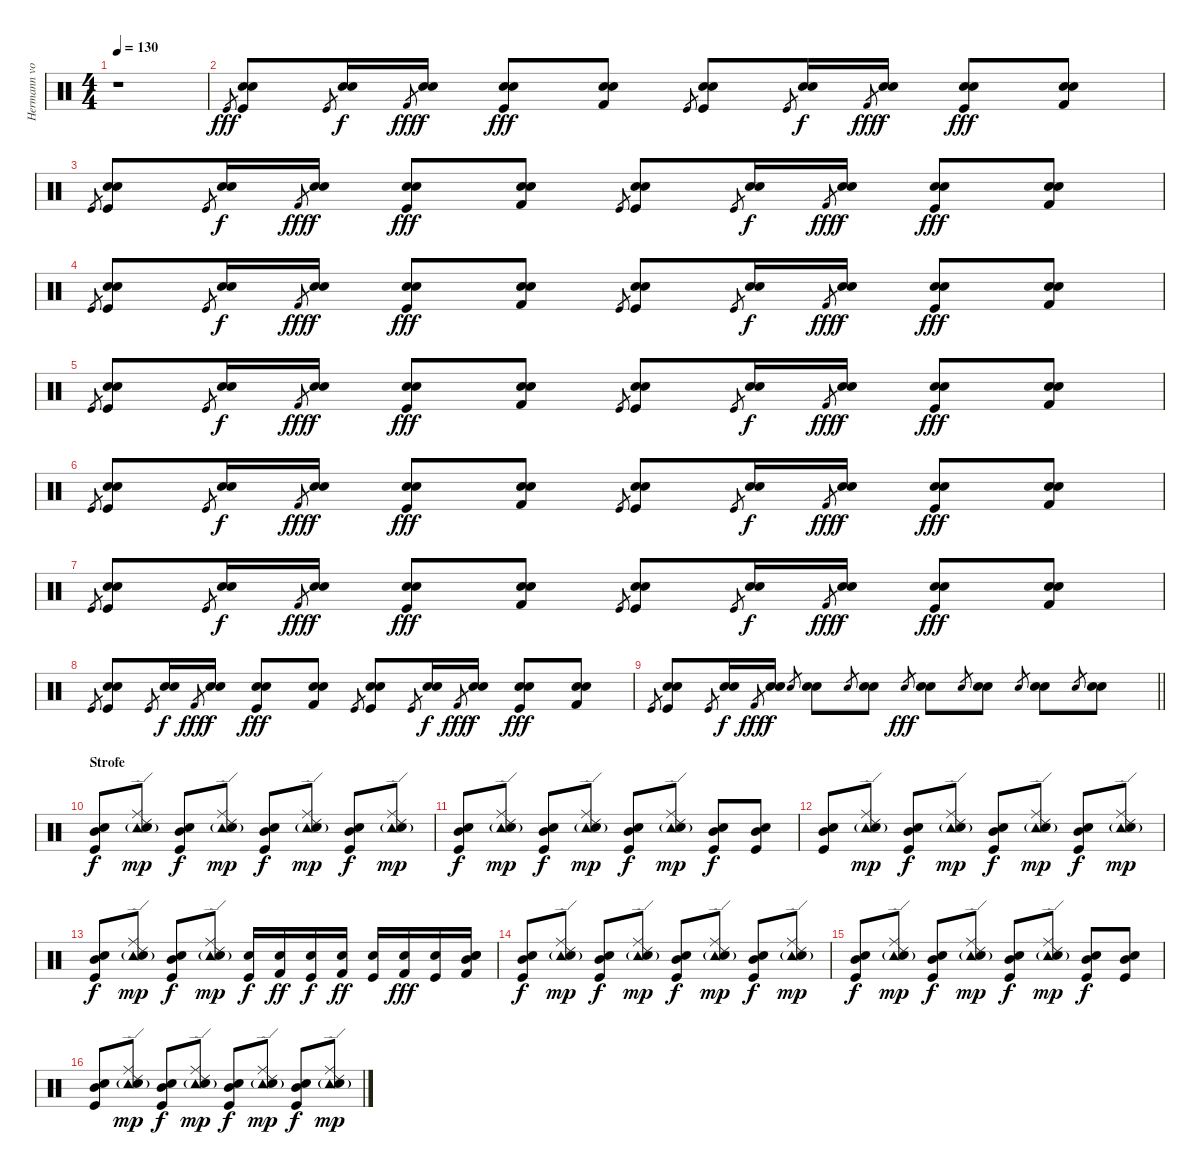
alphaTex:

\track ("Hermann von Hinten" "Hermann vo") {instrument percussion}
\staff {score}
\articulation defaults
\ts (4 4)
\tempo 130
\clef neutral
\ks c
r.1{dy fff} |
"Kick (hit)".8{gr} ("Electric Snare (hit)" "Kick (hit)" "Snare (hit) 2").8 "Kick (hit)".8{gr} ("Electric Snare (hit)" "Snare (hit) 2").16{dy f} "Kick (hit) 2".8{gr dy fff} ("Electric Snare (hit)" "Snare (hit) 2").16{dy f} ("Electric Snare (hit)" "Kick (hit)" "Snare (hit) 2").8{dy fff} ("Electric Snare (hit)" "Kick (hit) 2" "Snare (hit) 2").8 "Kick (hit)".8{gr} ("Electric Snare (hit)" "Kick (hit)" "Snare (hit) 2").8 "Kick (hit)".8{gr} ("Electric Snare (hit)" "Snare (hit) 2").16{dy f} "Kick (hit) 2".8{gr dy fff} ("Electric Snare (hit)" "Snare (hit) 2").16{dy f} ("Electric Snare (hit)" "Kick (hit)" "Snare (hit) 2").8{dy fff} ("Electric Snare (hit)" "Kick (hit) 2" "Snare (hit) 2").8 |
"Kick (hit)".8{gr} ("Electric Snare (hit)" "Kick (hit)" "Snare (hit) 2").8 "Kick (hit)".8{gr} ("Electric Snare (hit)" "Snare (hit) 2").16{dy f} "Kick (hit) 2".8{gr dy fff} ("Electric Snare (hit)" "Snare (hit) 2").16{dy f} ("Electric Snare (hit)" "Kick (hit)" "Snare (hit) 2").8{dy fff} ("Electric Snare (hit)" "Kick (hit) 2" "Snare (hit) 2").8 "Kick (hit)".8{gr} ("Electric Snare (hit)" "Kick (hit)" "Snare (hit) 2").8 "Kick (hit)".8{gr} ("Electric Snare (hit)" "Snare (hit) 2").16{dy f} "Kick (hit) 2".8{gr dy fff} ("Electric Snare (hit)" "Snare (hit) 2").16{dy f} ("Electric Snare (hit)" "Kick (hit)" "Snare (hit) 2").8{dy fff} ("Electric Snare (hit)" "Kick (hit) 2" "Snare (hit) 2").8 |
"Kick (hit)".8{gr} ("Electric Snare (hit)" "Kick (hit)" "Snare (hit) 2").8 "Kick (hit)".8{gr} ("Electric Snare (hit)" "Snare (hit) 2").16{dy f} "Kick (hit) 2".8{gr dy fff} ("Electric Snare (hit)" "Snare (hit) 2").16{dy f} ("Electric Snare (hit)" "Kick (hit)" "Snare (hit) 2").8{dy fff} ("Electric Snare (hit)" "Kick (hit) 2" "Snare (hit) 2").8 "Kick (hit)".8{gr} ("Electric Snare (hit)" "Kick (hit)" "Snare (hit) 2").8 "Kick (hit)".8{gr} ("Electric Snare (hit)" "Snare (hit) 2").16{dy f} "Kick (hit) 2".8{gr dy fff} ("Electric Snare (hit)" "Snare (hit) 2").16{dy f} ("Electric Snare (hit)" "Kick (hit)" "Snare (hit) 2").8{dy fff} ("Electric Snare (hit)" "Kick (hit) 2" "Snare (hit) 2").8 |
"Kick (hit)".8{gr} ("Electric Snare (hit)" "Kick (hit)" "Snare (hit) 2").8 "Kick (hit)".8{gr} ("Electric Snare (hit)" "Snare (hit) 2").16{dy f} "Kick (hit) 2".8{gr dy fff} ("Electric Snare (hit)" "Snare (hit) 2").16{dy f} ("Electric Snare (hit)" "Kick (hit)" "Snare (hit) 2").8{dy fff} ("Electric Snare (hit)" "Kick (hit) 2" "Snare (hit) 2").8 "Kick (hit)".8{gr} ("Electric Snare (hit)" "Kick (hit)" "Snare (hit) 2").8 "Kick (hit)".8{gr} ("Electric Snare (hit)" "Snare (hit) 2").16{dy f} "Kick (hit) 2".8{gr dy fff} ("Electric Snare (hit)" "Snare (hit) 2").16{dy f} ("Electric Snare (hit)" "Kick (hit)" "Snare (hit) 2").8{dy fff} ("Electric Snare (hit)" "Kick (hit) 2" "Snare (hit) 2").8 |
"Kick (hit)".8{gr} ("Electric Snare (hit)" "Kick (hit)" "Snare (hit) 2").8 "Kick (hit)".8{gr} ("Electric Snare (hit)" "Snare (hit) 2").16{dy f} "Kick (hit) 2".8{gr dy fff} ("Electric Snare (hit)" "Snare (hit) 2").16{dy f} ("Electric Snare (hit)" "Kick (hit)" "Snare (hit) 2").8{dy fff} ("Electric Snare (hit)" "Kick (hit) 2" "Snare (hit) 2").8 "Kick (hit)".8{gr} ("Electric Snare (hit)" "Kick (hit)" "Snare (hit) 2").8 "Kick (hit)".8{gr} ("Electric Snare (hit)" "Snare (hit) 2").16{dy f} "Kick (hit) 2".8{gr dy fff} ("Electric Snare (hit)" "Snare (hit) 2").16{dy f} ("Electric Snare (hit)" "Kick (hit)" "Snare (hit) 2").8{dy fff} ("Electric Snare (hit)" "Kick (hit) 2" "Snare (hit) 2").8 |
"Kick (hit)".8{gr} ("Electric Snare (hit)" "Kick (hit)" "Snare (hit) 2").8 "Kick (hit)".8{gr} ("Electric Snare (hit)" "Snare (hit) 2").16{dy f} "Kick (hit) 2".8{gr dy fff} ("Electric Snare (hit)" "Snare (hit) 2").16{dy f} ("Electric Snare (hit)" "Kick (hit)" "Snare (hit) 2").8{dy fff} ("Electric Snare (hit)" "Kick (hit) 2" "Snare (hit) 2").8 "Kick (hit)".8{gr} ("Electric Snare (hit)" "Kick (hit)" "Snare (hit) 2").8 "Kick (hit)".8{gr} ("Electric Snare (hit)" "Snare (hit) 2").16{dy f} "Kick (hit) 2".8{gr dy fff} ("Electric Snare (hit)" "Snare (hit) 2").16{dy f} ("Electric Snare (hit)" "Kick (hit)" "Snare (hit) 2").8{dy fff} ("Electric Snare (hit)" "Kick (hit) 2" "Snare (hit) 2").8 |
"Kick (hit)".8{gr} ("Electric Snare (hit)" "Kick (hit)" "Snare (hit) 2").8 "Kick (hit)".8{gr} ("Electric Snare (hit)" "Snare (hit) 2").16{dy f} "Kick (hit) 2".8{gr dy fff} ("Electric Snare (hit)" "Snare (hit) 2").16{dy f} ("Electric Snare (hit)" "Kick (hit)" "Snare (hit) 2").8{dy fff} ("Electric Snare (hit)" "Kick (hit) 2" "Snare (hit) 2").8 "Kick (hit)".8{gr} ("Electric Snare (hit)" "Kick (hit)" "Snare (hit) 2").8 "Kick (hit)".8{gr} ("Electric Snare (hit)" "Snare (hit) 2").16{dy f} "Kick (hit) 2".8{gr dy fff} ("Electric Snare (hit)" "Snare (hit) 2").16{dy f} ("Electric Snare (hit)" "Kick (hit)" "Snare (hit) 2").8{dy fff} ("Electric Snare (hit)" "Kick (hit) 2" "Snare (hit) 2").8 |
\barLineRight lightlight "Kick (hit)".8{gr}
("Electric Snare (hit)" "Kick (hit)" "Snare (hit) 2").8 "Kick (hit)".8{gr} ("Electric Snare (hit)" "Snare (hit) 2").16{dy f} "Kick (hit) 2".8{gr dy fff} ("Electric Snare (hit)" "Snare (hit) 2").16{dy f} "Snare (hit) 2".8{gr} ("Electric Snare (hit)" "Snare (hit) 2").8 "Snare (hit) 2".8{gr} ("Electric Snare (hit)" "Electric Snare (hit)").8 "Electric Snare (hit)".8{gr dy fff} ("Snare (hit) 2" "Snare (hit) 2").8 "Snare (hit) 2".8{gr} ("Electric Snare (hit)" "Electric Snare (hit)").8 "Electric Snare (hit)".8{gr} ("Snare (hit) 2" "Snare (hit) 2").8 "Snare (hit) 2".8{gr} ("Electric Snare (hit)" "Electric Snare (hit)").8 |
\section ("" "Strofe")
("Kick (hit)" "Mid Tom (hit)" "Electric Snare (hit)").8{dy f} ("Ride (middle)" "Tambourine (hit)" "Ride (edge) 2" "Snare (hit) 2"{g}).8{dy mp} ("Kick (hit)" "Mid Tom (hit)" "Electric Snare (hit)").8{dy f} ("Ride (middle)" "Tambourine (hit)" "Ride (edge) 2" "Snare (hit) 2"{g}).8{dy mp} ("Kick (hit)" "Mid Tom (hit)" "Electric Snare (hit)").8{dy f} ("Ride (middle)" "Tambourine (hit)" "Ride (edge) 2" "Snare (hit) 2"{g}).8{dy mp} ("Kick (hit)" "Mid Tom (hit)" "Electric Snare (hit)").8{dy f} ("Ride (middle)" "Tambourine (hit)" "Ride (edge) 2" "Snare (hit) 2"{g}).8{dy mp} |
("Kick (hit)" "Mid Tom (hit)" "Electric Snare (hit)").8{dy f} ("Ride (middle)" "Tambourine (hit)" "Ride (edge) 2" "Snare (hit) 2"{g}).8{dy mp} ("Kick (hit)" "Mid Tom (hit)" "Electric Snare (hit)").8{dy f} ("Ride (middle)" "Tambourine (hit)" "Ride (edge) 2" "Snare (hit) 2"{g}).8{dy mp} ("Kick (hit)" "Mid Tom (hit)" "Electric Snare (hit)").8{dy f} ("Ride (middle)" "Tambourine (hit)" "Ride (edge) 2" "Snare (hit) 2"{g}).8{dy mp} ("Kick (hit)" "Mid Tom (hit)" "Snare (hit) 2").8{dy f} ("Kick (hit)" "Mid Tom (hit)" "Electric Snare (hit)").8 |
("Kick (hit)" "Mid Tom (hit)" "Electric Snare (hit)").8 ("Ride (middle)" "Tambourine (hit)" "Ride (edge) 2" "Snare (hit) 2"{g}).8{dy mp} ("Kick (hit)" "Mid Tom (hit)" "Electric Snare (hit)").8{dy f} ("Ride (middle)" "Tambourine (hit)" "Ride (edge) 2" "Snare (hit) 2"{g}).8{dy mp} ("Kick (hit)" "Mid Tom (hit)" "Electric Snare (hit)").8{dy f} ("Ride (middle)" "Tambourine (hit)" "Ride (edge) 2" "Snare (hit) 2"{g}).8{dy mp} ("Kick (hit)" "Mid Tom (hit)" "Electric Snare (hit)").8{dy f} ("Ride (middle)" "Tambourine (hit)" "Ride (edge) 2" "Snare (hit) 2"{g}).8{dy mp} |
("Kick (hit)" "Mid Tom (hit)" "Electric Snare (hit)").8{dy f} ("Ride (middle)" "Tambourine (hit)" "Ride (edge) 2" "Snare (hit) 2"{g}).8{dy mp} ("Kick (hit)" "Mid Tom (hit)" "Electric Snare (hit)").8{dy f} ("Ride (middle)" "Tambourine (hit)" "Ride (edge) 2" "Snare (hit) 2"{g}).8{dy mp} ("Kick (hit)" "Snare (hit) 2").16{dy f} ("Kick (hit) 2" "Electric Snare (hit)").16{dy ff} ("Kick (hit)" "Snare (hit) 2").16{dy f} ("Kick (hit) 2" "Electric Snare (hit)").16{dy ff} ("Kick (hit)" "Snare (hit) 2").16 ("Kick (hit) 2" "Electric Snare (hit)").16{dy fff} ("Kick (hit)" "Snare (hit) 2").16 ("Mid Tom (hit)" "Kick (hit) 2" "Electric Snare (hit)" "Snare (hit) 2").16 |
("Kick (hit)" "Mid Tom (hit)" "Electric Snare (hit)").8{dy f} ("Ride (middle)" "Tambourine (hit)" "Ride (edge) 2" "Snare (hit) 2"{g}).8{dy mp} ("Kick (hit)" "Mid Tom (hit)" "Electric Snare (hit)").8{dy f} ("Ride (middle)" "Tambourine (hit)" "Ride (edge) 2" "Snare (hit) 2"{g}).8{dy mp} ("Kick (hit)" "Mid Tom (hit)" "Electric Snare (hit)").8{dy f} ("Ride (middle)" "Tambourine (hit)" "Ride (edge) 2" "Snare (hit) 2"{g}).8{dy mp} ("Kick (hit)" "Mid Tom (hit)" "Electric Snare (hit)").8{dy f} ("Ride (middle)" "Tambourine (hit)" "Ride (edge) 2" "Snare (hit) 2"{g}).8{dy mp} |
("Kick (hit)" "Mid Tom (hit)" "Electric Snare (hit)").8{dy f} ("Ride (middle)" "Tambourine (hit)" "Ride (edge) 2" "Snare (hit) 2"{g}).8{dy mp} ("Kick (hit)" "Mid Tom (hit)" "Electric Snare (hit)").8{dy f} ("Ride (middle)" "Tambourine (hit)" "Ride (edge) 2" "Snare (hit) 2"{g}).8{dy mp} ("Kick (hit)" "Mid Tom (hit)" "Electric Snare (hit)").8{dy f} ("Ride (middle)" "Tambourine (hit)" "Ride (edge) 2" "Snare (hit) 2"{g}).8{dy mp} ("Kick (hit)" "Mid Tom (hit)" "Snare (hit) 2").8{dy f} ("Kick (hit)" "Mid Tom (hit)" "Electric Snare (hit)").8 |
("Kick (hit)" "Mid Tom (hit)" "Electric Snare (hit)").8 ("Ride (middle)" "Tambourine (hit)" "Ride (edge) 2" "Snare (hit) 2"{g}).8{dy mp} ("Kick (hit)" "Mid Tom (hit)" "Electric Snare (hit)").8{dy f} ("Ride (middle)" "Tambourine (hit)" "Ride (edge) 2" "Snare (hit) 2"{g}).8{dy mp} ("Kick (hit)" "Mid Tom (hit)" "Electric Snare (hit)").8{dy f} ("Ride (middle)" "Tambourine (hit)" "Ride (edge) 2" "Snare (hit) 2"{g}).8{dy mp} ("Kick (hit)" "Mid Tom (hit)" "Electric Snare (hit)").8{dy f} ("Ride (middle)" "Tambourine (hit)" "Ride (edge) 2" "Snare (hit) 2"{g}).8{dy mp}
